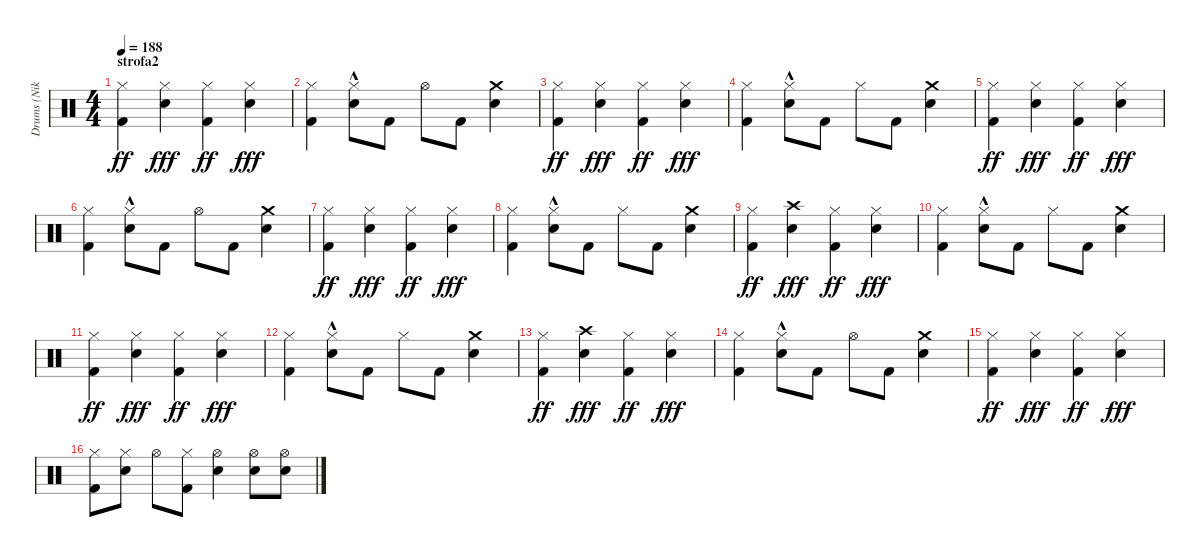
\track ("Drums (Niko)" "Drums (Nik") {instrument percussion}
\staff {score}
\articulation defaults
\ts (4 4)
\section ("" "strofa2")
\tempo 188
\clef neutral
\ks c
("Hi-Hat (closed)" "Kick (hit) 2").4{dy ff} ("Hi-Hat (closed)" "Electric Snare (hit)").4{dy fff} ("Hi-Hat (closed)" "Kick (hit) 2").4{dy ff} ("Hi-Hat (closed)" "Electric Snare (hit)").4{dy fff} |
("Hi-Hat (closed)" "Kick (hit) 2").4 ("Hi-Hat (closed)" "Electric Snare (hit)"{hac}).8 "Kick (hit) 2".8 "Hi-Hat (open)".8 "Kick (hit) 2".8 ("Crash medium (hit)" "Electric Snare (hit)").4 |
("Hi-Hat (closed)" "Kick (hit) 2").4{dy ff} ("Hi-Hat (closed)" "Electric Snare (hit)").4{dy fff} ("Hi-Hat (closed)" "Kick (hit) 2").4{dy ff} ("Hi-Hat (closed)" "Electric Snare (hit)").4{dy fff} |
("Hi-Hat (closed)" "Kick (hit) 2").4 ("Hi-Hat (closed)" "Electric Snare (hit)"{hac}).8 "Kick (hit) 2".8 "Hi-Hat (closed)".8 "Kick (hit) 2".8 ("Crash medium (hit)" "Electric Snare (hit)").4 |
("Hi-Hat (closed)" "Kick (hit) 2").4{dy ff} ("Hi-Hat (closed)" "Electric Snare (hit)").4{dy fff} ("Hi-Hat (closed)" "Kick (hit) 2").4{dy ff} ("Hi-Hat (closed)" "Electric Snare (hit)").4{dy fff} |
("Hi-Hat (closed)" "Kick (hit) 2").4 ("Hi-Hat (closed)" "Electric Snare (hit)"{hac}).8 "Kick (hit) 2".8 "Hi-Hat (open)".8 "Kick (hit) 2".8 ("Crash medium (hit)" "Electric Snare (hit)").4 |
("Hi-Hat (closed)" "Kick (hit) 2").4{dy ff} ("Hi-Hat (closed)" "Electric Snare (hit)").4{dy fff} ("Hi-Hat (closed)" "Kick (hit) 2").4{dy ff} ("Hi-Hat (closed)" "Electric Snare (hit)").4{dy fff} |
("Hi-Hat (closed)" "Kick (hit) 2").4 ("Hi-Hat (closed)" "Electric Snare (hit)"{hac}).8 "Kick (hit) 2".8 "Hi-Hat (closed)".8 "Kick (hit) 2".8 ("Crash medium (hit)" "Electric Snare (hit)").4 |
("Hi-Hat (closed)" "Kick (hit) 2").4{dy ff} ("Crash high (hit)" "Electric Snare (hit)").4{dy fff} ("Hi-Hat (closed)" "Kick (hit) 2").4{dy ff} ("Hi-Hat (closed)" "Electric Snare (hit)").4{dy fff} |
("Hi-Hat (closed)" "Kick (hit) 2").4 ("Hi-Hat (closed)" "Electric Snare (hit)"{hac}).8 "Kick (hit) 2".8 "Hi-Hat (closed)".8 "Kick (hit) 2".8 ("Crash medium (hit)" "Electric Snare (hit)").4 |
("Hi-Hat (closed)" "Kick (hit) 2").4{dy ff} ("Hi-Hat (closed)" "Electric Snare (hit)").4{dy fff} ("Hi-Hat (closed)" "Kick (hit) 2").4{dy ff} ("Hi-Hat (closed)" "Electric Snare (hit)").4{dy fff} |
("Hi-Hat (closed)" "Kick (hit) 2").4 ("Hi-Hat (closed)" "Electric Snare (hit)"{hac}).8 "Kick (hit) 2".8 "Hi-Hat (closed)".8 "Kick (hit) 2".8 ("Crash medium (hit)" "Electric Snare (hit)").4 |
("Hi-Hat (closed)" "Kick (hit) 2").4{dy ff} ("Crash high (hit)" "Electric Snare (hit)").4{dy fff} ("Hi-Hat (closed)" "Kick (hit) 2").4{dy ff} ("Hi-Hat (closed)" "Electric Snare (hit)").4{dy fff} |
("Hi-Hat (closed)" "Kick (hit) 2").4 ("Hi-Hat (closed)" "Electric Snare (hit)"{hac}).8 "Kick (hit) 2".8 "Hi-Hat (open)".8 "Kick (hit) 2".8 ("Crash medium (hit)" "Electric Snare (hit)").4 |
("Hi-Hat (closed)" "Kick (hit) 2").4{dy ff} ("Hi-Hat (closed)" "Electric Snare (hit)").4{dy fff} ("Hi-Hat (closed)" "Kick (hit) 2").4{dy ff} ("Hi-Hat (closed)" "Electric Snare (hit)").4{dy fff} |
("Hi-Hat (closed)" "Kick (hit) 2").8 ("Hi-Hat (closed)" "Electric Snare (hit)").8 "Hi-Hat (open)".8 ("Hi-Hat (closed)" "Kick (hit) 2").8 ("Hi-Hat (open)" "Electric Snare (hit)").4 ("Hi-Hat (open)" "Electric Snare (hit)").8 ("Hi-Hat (open)" "Electric Snare (hit)").8
